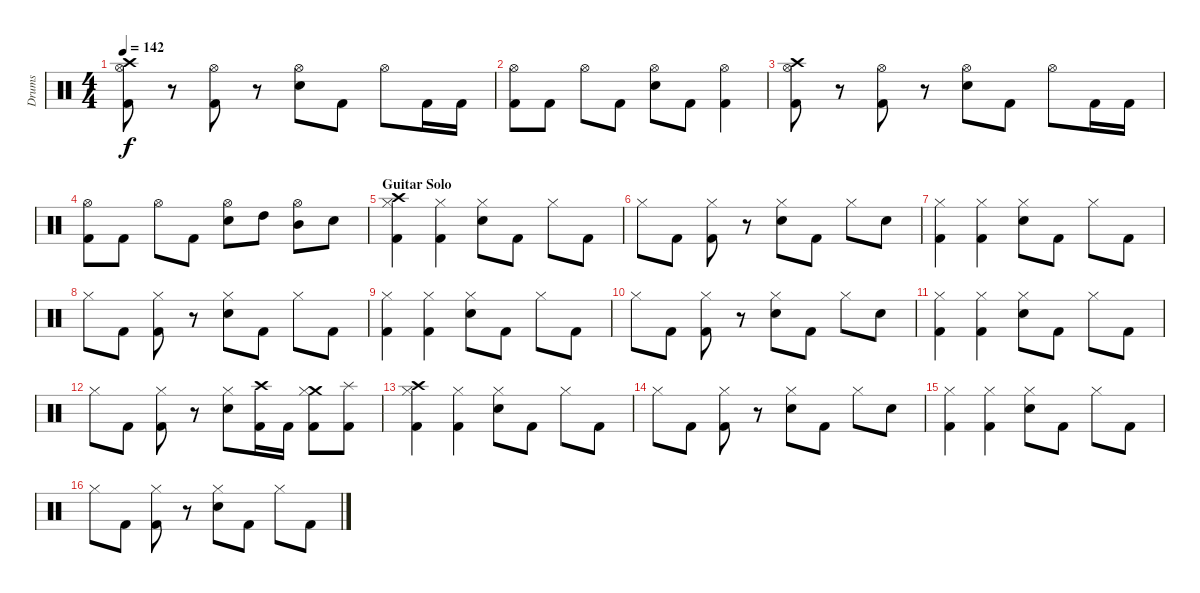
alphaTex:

\track ("Drums" "Drums") {instrument percussion}
\staff {score}
\articulation defaults
\ts (4 4)
\tempo 142
\clef neutral
\ks c
("Crash high (hit)" "Hi-Hat (open)" "Kick (hit) 2").8{dy f} r.8 ("Hi-Hat (open)" "Kick (hit) 2").8 r.8 ("Hi-Hat (open)" "Electric Snare (hit)").8 "Kick (hit) 2".8 "Hi-Hat (open)".8 "Kick (hit) 2".16 "Kick (hit) 2".16 |
("Hi-Hat (open)" "Kick (hit) 2").8 "Kick (hit) 2".8 "Hi-Hat (open)".8 "Kick (hit) 2".8 ("Hi-Hat (open)" "Electric Snare (hit)").8 "Kick (hit) 2".8 ("Hi-Hat (open)" "Kick (hit) 2").4 |
("Crash high (hit)" "Hi-Hat (open)" "Kick (hit) 2").8 r.8 ("Hi-Hat (open)" "Kick (hit) 2").8 r.8 ("Hi-Hat (open)" "Electric Snare (hit)").8 "Kick (hit) 2".8 "Hi-Hat (open)".8 "Kick (hit) 2".16 "Kick (hit) 2".16 |
("Hi-Hat (open)" "Kick (hit) 2").8 "Kick (hit) 2".8 "Hi-Hat (open)".8 "Kick (hit) 2".8 ("Hi-Hat (open)" "Electric Snare (hit)").8 "High Tom (hit)".8 ("Hi-Hat (open)" "Mid Tom (hit)").8 "Electric Snare (hit)".8 |
\section ("" "Guitar Solo")
("Crash high (hit)" "Hi-Hat (closed)" "Kick (hit) 2").4 ("Hi-Hat (closed)" "Kick (hit) 2").4 ("Hi-Hat (closed)" "Electric Snare (hit)").8 "Kick (hit) 2".8 "Hi-Hat (closed)".8 "Kick (hit) 2".8 |
"Hi-Hat (closed)".8 "Kick (hit) 2".8 ("Hi-Hat (closed)" "Kick (hit) 2").8 r.8 ("Hi-Hat (closed)" "Electric Snare (hit)").8 "Kick (hit) 2".8 "Hi-Hat (closed)".8 "Electric Snare (hit)".8 |
("Hi-Hat (closed)" "Kick (hit) 2").4 ("Hi-Hat (closed)" "Kick (hit) 2").4 ("Hi-Hat (closed)" "Electric Snare (hit)").8 "Kick (hit) 2".8 "Hi-Hat (closed)".8 "Kick (hit) 2".8 |
"Hi-Hat (closed)".8 "Kick (hit) 2".8 ("Hi-Hat (closed)" "Kick (hit) 2").8 r.8 ("Hi-Hat (closed)" "Electric Snare (hit)").8 "Kick (hit) 2".8 "Hi-Hat (closed)".8 "Kick (hit) 2".8 |
("Hi-Hat (closed)" "Kick (hit) 2").4 ("Hi-Hat (closed)" "Kick (hit) 2").4 ("Hi-Hat (closed)" "Electric Snare (hit)").8 "Kick (hit) 2".8 "Hi-Hat (closed)".8 "Kick (hit) 2".8 |
"Hi-Hat (closed)".8 "Kick (hit) 2".8 ("Hi-Hat (closed)" "Kick (hit) 2").8 r.8 ("Hi-Hat (closed)" "Electric Snare (hit)").8 "Kick (hit) 2".8 "Hi-Hat (closed)".8 "Electric Snare (hit)".8 |
("Hi-Hat (closed)" "Kick (hit) 2").4 ("Hi-Hat (closed)" "Kick (hit) 2").4 ("Hi-Hat (closed)" "Electric Snare (hit)").8 "Kick (hit) 2".8 "Hi-Hat (closed)".8 "Kick (hit) 2".8 |
"Hi-Hat (closed)".8 "Kick (hit) 2".8 ("Hi-Hat (closed)" "Kick (hit) 2").8 r.8 ("Hi-Hat (closed)" "Electric Snare (hit)").8 ("Crash high (hit)" "Kick (hit) 2").16 "Kick (hit) 2".16 ("Crash medium (hit)" "Hi-Hat (closed)" "Kick (hit) 2").8 ("Splash (hit)" "Kick (hit) 2").8 |
("Crash high (hit)" "Hi-Hat (closed)" "Kick (hit) 2").4 ("Hi-Hat (closed)" "Kick (hit) 2").4 ("Hi-Hat (closed)" "Electric Snare (hit)").8 "Kick (hit) 2".8 "Hi-Hat (closed)".8 "Kick (hit) 2".8 |
"Hi-Hat (closed)".8 "Kick (hit) 2".8 ("Hi-Hat (closed)" "Kick (hit) 2").8 r.8 ("Hi-Hat (closed)" "Electric Snare (hit)").8 "Kick (hit) 2".8 "Hi-Hat (closed)".8 "Electric Snare (hit)".8 |
("Hi-Hat (closed)" "Kick (hit) 2").4 ("Hi-Hat (closed)" "Kick (hit) 2").4 ("Hi-Hat (closed)" "Electric Snare (hit)").8 "Kick (hit) 2".8 "Hi-Hat (closed)".8 "Kick (hit) 2".8 |
"Hi-Hat (closed)".8 "Kick (hit) 2".8 ("Hi-Hat (closed)" "Kick (hit) 2").8 r.8 ("Hi-Hat (closed)" "Electric Snare (hit)").8 "Kick (hit) 2".8 "Hi-Hat (closed)".8 "Kick (hit) 2".8
